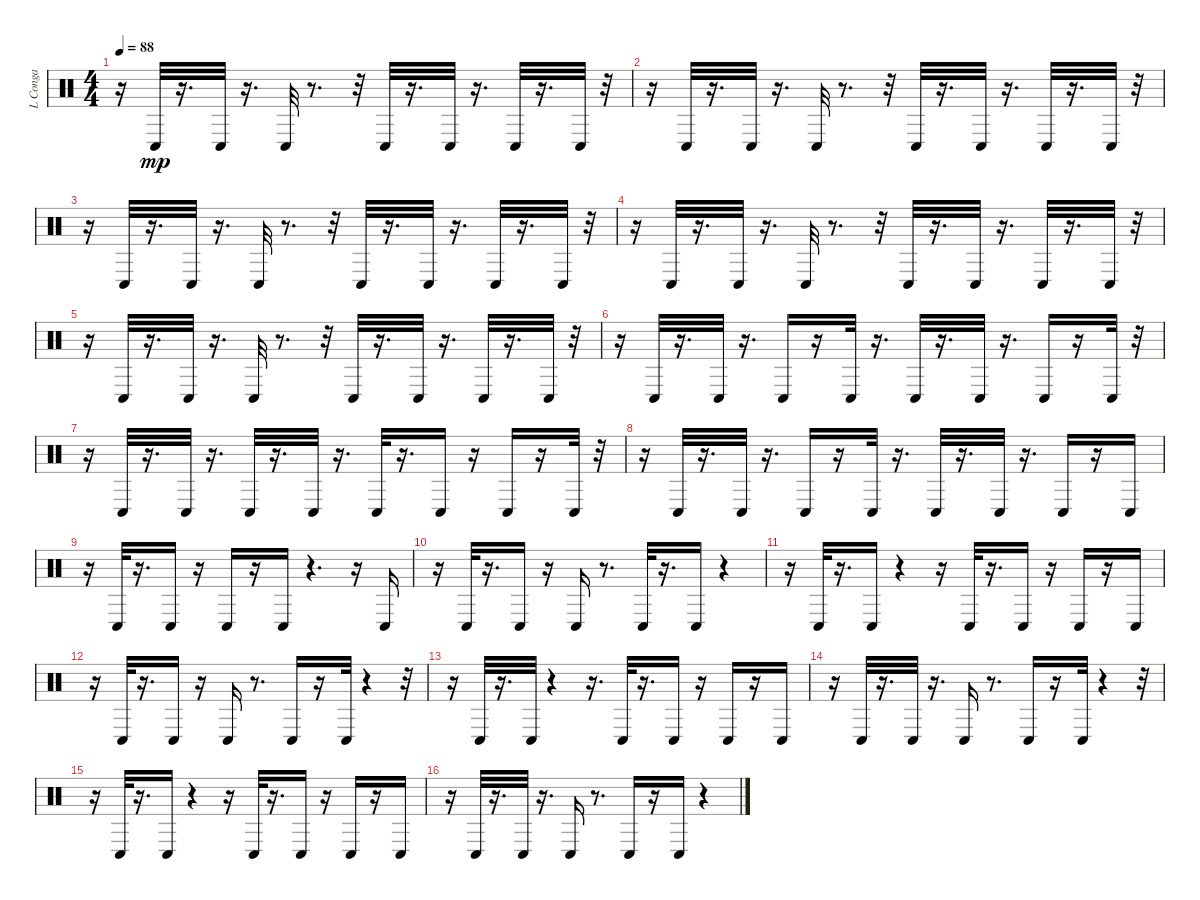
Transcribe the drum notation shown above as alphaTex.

\track ("L Conga" "L Conga") {instrument percussion}
\staff {score}
\articulation defaults
\ts (4 4)
\tempo 88
\clef neutral
\ks c
r.16{dy mp} "Conga low (hit)".32 r.16{d} "Conga low (hit)".32 r.16{d} "Conga low (hit)".32 r.8{d} r.32 "Conga low (hit)".32 r.16{d} "Conga low (hit)".32 r.16{d} "Conga low (hit)".32 r.16{d} "Conga low (hit)".32 r.32 |
r.16 "Conga low (hit)".32 r.16{d} "Conga low (hit)".32 r.16{d} "Conga low (hit)".32 r.8{d} r.32 "Conga low (hit)".32 r.16{d} "Conga low (hit)".32 r.16{d} "Conga low (hit)".32 r.16{d} "Conga low (hit)".32 r.32 |
r.16 "Conga low (hit)".32 r.16{d} "Conga low (hit)".32 r.16{d} "Conga low (hit)".32 r.8{d} r.32 "Conga low (hit)".32 r.16{d} "Conga low (hit)".32 r.16{d} "Conga low (hit)".32 r.16{d} "Conga low (hit)".32 r.32 |
r.16 "Conga low (hit)".32 r.16{d} "Conga low (hit)".32 r.16{d} "Conga low (hit)".32 r.8{d} r.32 "Conga low (hit)".32 r.16{d} "Conga low (hit)".32 r.16{d} "Conga low (hit)".32 r.16{d} "Conga low (hit)".32 r.32 |
r.16 "Conga low (hit)".32 r.16{d} "Conga low (hit)".32 r.16{d} "Conga low (hit)".32 r.8{d} r.32 "Conga low (hit)".32 r.16{d} "Conga low (hit)".32 r.16{d} "Conga low (hit)".32 r.16{d} "Conga low (hit)".32 r.32 |
r.16 "Conga low (hit)".32 r.16{d} "Conga low (hit)".32 r.16{d} "Conga low (hit)".16 r.16 "Conga low (hit)".32 r.16{d} "Conga low (hit)".32 r.16{d} "Conga low (hit)".32 r.16{d} "Conga low (hit)".16 r.16 "Conga low (hit)".32 r.32 |
r.16 "Conga low (hit)".32 r.16{d} "Conga low (hit)".32 r.16{d} "Conga low (hit)".32 r.16{d} "Conga low (hit)".32 r.16{d} "Conga low (hit)".32 r.16{d} "Conga low (hit)".16 r.16 "Conga low (hit)".16 r.16 "Conga low (hit)".32 r.32 |
r.16 "Conga low (hit)".32 r.16{d} "Conga low (hit)".32 r.16{d} "Conga low (hit)".16 r.16 "Conga low (hit)".32 r.16{d} "Conga low (hit)".32 r.16{d} "Conga low (hit)".32 r.16{d} "Conga low (hit)".16 r.16 "Conga low (hit)".16 |
r.16 "Conga low (hit)".32 r.16{d} "Conga low (hit)".16 r.16 "Conga low (hit)".16 r.16 "Conga low (hit)".16 r.4{d} r.16 "Conga low (hit)".16 |
r.16 "Conga low (hit)".32 r.16{d} "Conga low (hit)".16 r.16 "Conga low (hit)".16 r.8{d} "Conga low (hit)".32 r.16{d} "Conga low (hit)".16 r.4 |
r.16 "Conga low (hit)".32 r.16{d} "Conga low (hit)".16 r.4 r.16 "Conga low (hit)".32 r.16{d} "Conga low (hit)".16 r.16 "Conga low (hit)".16 r.16 "Conga low (hit)".16 |
r.16 "Conga low (hit)".32 r.16{d} "Conga low (hit)".16 r.16 "Conga low (hit)".16 r.8{d} "Conga low (hit)".16 r.16 "Conga low (hit)".32 r.4 r.32 |
r.16 "Conga low (hit)".32 r.16{d} "Conga low (hit)".32 r.4 r.16{d} "Conga low (hit)".32 r.16{d} "Conga low (hit)".16 r.16 "Conga low (hit)".16 r.16 "Conga low (hit)".16 |
r.16 "Conga low (hit)".32 r.16{d} "Conga low (hit)".32 r.16{d} "Conga low (hit)".16 r.8{d} "Conga low (hit)".16 r.16 "Conga low (hit)".32 r.4 r.32 |
r.16 "Conga low (hit)".32 r.16{d} "Conga low (hit)".16 r.4 r.16 "Conga low (hit)".32 r.16{d} "Conga low (hit)".16 r.16 "Conga low (hit)".16 r.16 "Conga low (hit)".16 |
r.16 "Conga low (hit)".32 r.16{d} "Conga low (hit)".32 r.16{d} "Conga low (hit)".16 r.8{d} "Conga low (hit)".16 r.16 "Conga low (hit)".16 r.4
